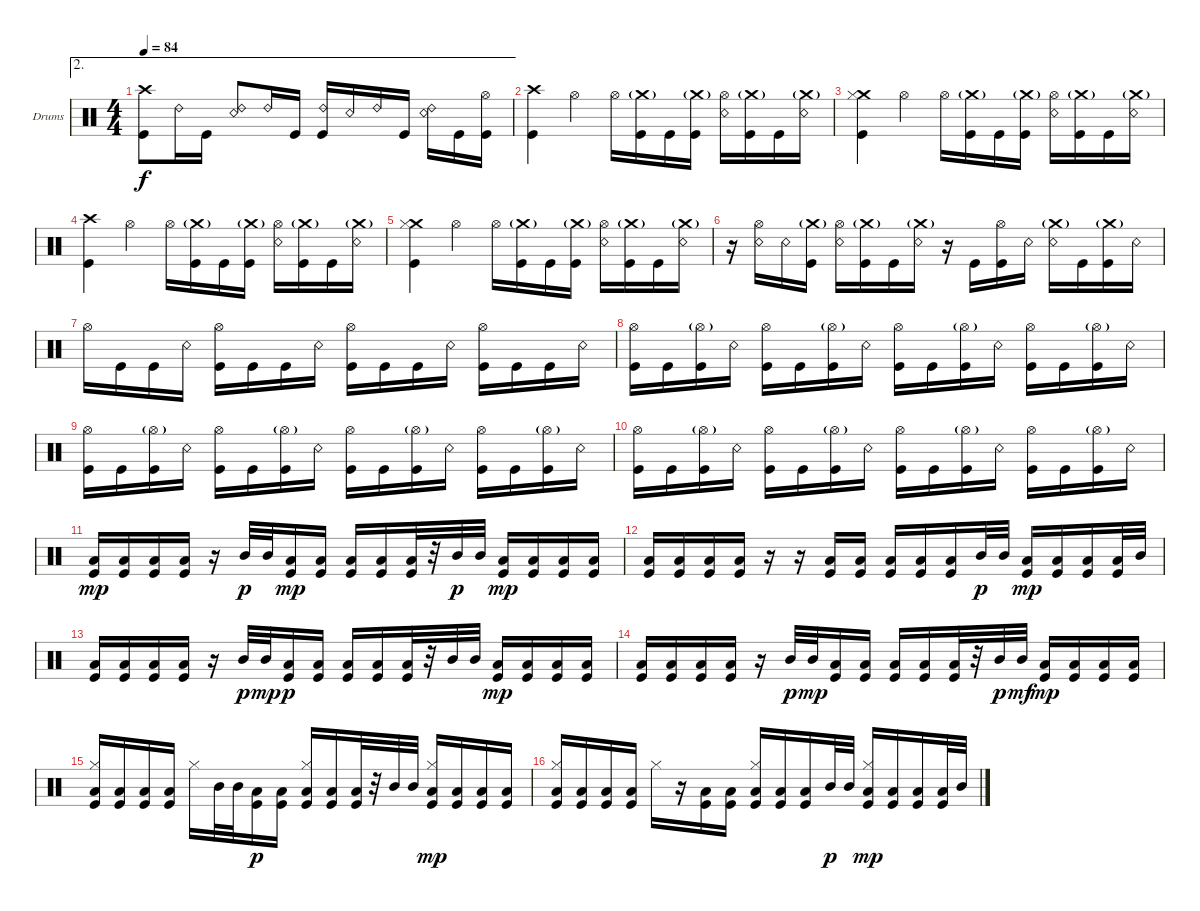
\defaultSystemsLayout 4
\bracketExtendMode groupsimilarinstruments
\firstSystemTrackNameOrientation horizontal
\otherSystemsTrackNameOrientation horizontal
\track ("Drumkit" "Drums") {instrument percussion}
\staff {score}
\articulation defaults
\ae 2
\ts (4 4)
\tempo 84
\clef neutral
\ks c
("Kick (hit)" "Crash high (hit)").8{dy f} "Ride (bell) 2".16 "Kick (hit)".16 ("Snare (rim shot)" "Ride (bell) 2").8 "Ride (bell) 2".16 "Kick (hit)".16 ("Kick (hit)" "Ride (bell) 2").16 "Snare (rim shot)".16 "Ride (bell) 2".16 "Kick (hit)".16 ("Snare (rim shot)" "Ride (bell) 2").16 "Kick (hit)".16 ("Kick (hit)" "Hi-Hat (open)").16 |
\scale
0.322034 ("Kick (hit)" "Crash high (hit)").4 "Hi-Hat (open)".4 "Hi-Hat (open)".16 ("Kick (hit)" "Crash medium (hit)"{g}).16 "Kick (hit)".16 ("Kick (hit)" "Crash medium (hit)"{g}).16 ("Snare (rim shot)" "Hi-Hat (open)").16 ("Kick (hit)" "Crash medium (hit)"{g}).16 "Kick (hit)".16 ("Snare (rim shot)" "Crash medium (hit)"{g}).16 |
\scale
0.333333 ("Kick (hit)" "Crash medium (hit)" "Hi-Hat (closed)").4 "Hi-Hat (open)".4 "Hi-Hat (open)".16 ("Kick (hit)" "Crash medium (hit)"{g}).16 "Kick (hit)".16 ("Kick (hit)" "Crash medium (hit)"{g}).16 ("Snare (rim shot)" "Hi-Hat (open)").16 ("Kick (hit)" "Crash medium (hit)"{g}).16 "Kick (hit)".16 ("Snare (rim shot)" "Crash medium (hit)"{g}).16 |
\scale
0.333333 ("Kick (hit)" "Crash high (hit)").4 "Hi-Hat (open)".4 "Hi-Hat (open)".16 ("Kick (hit)" "Crash medium (hit)"{g}).16 "Kick (hit)".16 ("Kick (hit)" "Crash medium (hit)"{g}).16 ("Snare (rim shot)" "Hi-Hat (open)").16 ("Kick (hit)" "Crash medium (hit)"{g}).16 "Kick (hit)".16 ("Snare (rim shot)" "Crash medium (hit)"{g}).16 |
\scale
0.333333 ("Kick (hit)" "Crash medium (hit)" "Hi-Hat (closed)").4 "Hi-Hat (open)".4 "Hi-Hat (open)".16 ("Kick (hit)" "Crash medium (hit)"{g}).16 "Kick (hit)".16 ("Kick (hit)" "Crash medium (hit)"{g}).16 ("Snare (rim shot)" "Hi-Hat (open)").16 ("Kick (hit)" "Crash medium (hit)"{g}).16 "Kick (hit)".16 ("Snare (rim shot)" "Crash medium (hit)"{g}).16 |
\scale
0.333333 r.16 ("Snare (rim shot)" "Hi-Hat (open)").16 "Snare (rim shot)".16 ("Kick (hit)" "Crash medium (hit)"{g}).16 ("Snare (rim shot)" "Hi-Hat (open)").16 ("Kick (hit)" "Crash medium (hit)"{g}).16 "Kick (hit)".16 ("Snare (rim shot)" "Crash medium (hit)"{g}).16 r.16 "Kick (hit)".16 ("Kick (hit)" "Hi-Hat (open)").16 "Snare (rim shot)".16 ("Snare (rim shot)" "Crash medium (hit)"{g}).16 "Kick (hit)".16 ("Kick (hit)" "Crash medium (hit)"{g}).16 "Snare (rim shot)".16 |
\scale
0.333333 "Hi-Hat (open)".16 "Kick (hit)".16 "Kick (hit)".16 "Snare (rim shot)".16 ("Kick (hit)" "Hi-Hat (open)").16 "Kick (hit)".16 "Kick (hit)".16 "Snare (rim shot)".16 ("Kick (hit)" "Hi-Hat (open)").16 "Kick (hit)".16 "Kick (hit)".16 "Snare (rim shot)".16 ("Kick (hit)" "Hi-Hat (open)").16 "Kick (hit)".16 "Kick (hit)".16 "Snare (rim shot)".16 |
\scale
0.333333 ("Hi-Hat (open)" "Kick (hit)").16 "Kick (hit)".16 ("Kick (hit)" "Hi-Hat (open)"{g}).16 "Snare (rim shot)".16 ("Kick (hit)" "Hi-Hat (open)").16 "Kick (hit)".16 ("Kick (hit)" "Hi-Hat (open)"{g}).16 "Snare (rim shot)".16 ("Kick (hit)" "Hi-Hat (open)").16 "Kick (hit)".16 ("Kick (hit)" "Hi-Hat (open)"{g}).16 "Snare (rim shot)".16 ("Kick (hit)" "Hi-Hat (open)").16 "Kick (hit)".16 ("Kick (hit)" "Hi-Hat (open)"{g}).16 "Snare (rim shot)".16 |
\scale
0.333333 ("Hi-Hat (open)" "Kick (hit)").16 "Kick (hit)".16 ("Kick (hit)" "Hi-Hat (open)"{g}).16 "Snare (rim shot)".16 ("Kick (hit)" "Hi-Hat (open)").16 "Kick (hit)".16 ("Kick (hit)" "Hi-Hat (open)"{g}).16 "Snare (rim shot)".16 ("Kick (hit)" "Hi-Hat (open)").16 "Kick (hit)".16 ("Kick (hit)" "Hi-Hat (open)"{g}).16 "Snare (rim shot)".16 ("Kick (hit)" "Hi-Hat (open)").16 "Kick (hit)".16 ("Kick (hit)" "Hi-Hat (open)"{g}).16 "Snare (rim shot)".16 |
\scale
0.333333 ("Hi-Hat (open)" "Kick (hit)").16 "Kick (hit)".16 ("Kick (hit)" "Hi-Hat (open)"{g}).16 "Snare (rim shot)".16 ("Kick (hit)" "Hi-Hat (open)").16 "Kick (hit)".16 ("Kick (hit)" "Hi-Hat (open)"{g}).16 "Snare (rim shot)".16 ("Kick (hit)" "Hi-Hat (open)").16 "Kick (hit)".16 ("Kick (hit)" "Hi-Hat (open)"{g}).16 "Snare (rim shot)".16 ("Kick (hit)" "Hi-Hat (open)").16 "Kick (hit)".16 ("Kick (hit)" "Hi-Hat (open)"{g}).16 "Snare (rim shot)".16 |
\scale
0.333333 ("Low Tom (hit)" "Kick (hit)").16{dy mp} ("Low Tom (hit)" "Kick (hit)").16 ("Low Tom (hit)" "Kick (hit)").16 ("Low Tom (hit)" "Kick (hit)").16 r.16 "Mid Tom (hit)".32{dy p} "Mid Tom (hit)".32 ("Low Tom (hit)" "Kick (hit)").16{dy mp} ("Low Tom (hit)" "Kick (hit)").16 ("Low Tom (hit)" "Kick (hit)").16 ("Low Tom (hit)" "Kick (hit)").16 ("Low Tom (hit)" "Kick (hit)").32 r.32 "Mid Tom (hit)".32{dy p} "Mid Tom (hit)".32 ("Low Tom (hit)" "Kick (hit)").16{dy mp} ("Low Tom (hit)" "Kick (hit)").16 ("Low Tom (hit)" "Kick (hit)").16 ("Low Tom (hit)" "Kick (hit)").16 |
\scale
0.333333 ("Low Tom (hit)" "Kick (hit)").16 ("Low Tom (hit)" "Kick (hit)").16 ("Low Tom (hit)" "Kick (hit)").16 ("Low Tom (hit)" "Kick (hit)").16 r.16 r.16 ("Low Tom (hit)" "Kick (hit)").16 ("Low Tom (hit)" "Kick (hit)").16 ("Low Tom (hit)" "Kick (hit)").16 ("Low Tom (hit)" "Kick (hit)").16 ("Low Tom (hit)" "Kick (hit)").16 "Mid Tom (hit)".32{dy p} "Mid Tom (hit)".32 ("Low Tom (hit)" "Kick (hit)").16{dy mp} ("Low Tom (hit)" "Kick (hit)").16 ("Low Tom (hit)" "Kick (hit)").16 ("Low Tom (hit)" "Kick (hit)").32 "Mid Tom (hit)".32 |
\scale
0.333333 ("Low Tom (hit)" "Kick (hit)").16 ("Low Tom (hit)" "Kick (hit)").16 ("Low Tom (hit)" "Kick (hit)").16 ("Low Tom (hit)" "Kick (hit)").16 r.16 "Mid Tom (hit)".32{dy p} "Mid Tom (hit)".32{dy mp} ("Low Tom (hit)" "Kick (hit)").16{dy p} ("Low Tom (hit)" "Kick (hit)").16 ("Low Tom (hit)" "Kick (hit)").16 ("Low Tom (hit)" "Kick (hit)").16 ("Low Tom (hit)" "Kick (hit)").32 r.32 "Mid Tom (hit)".32 "Mid Tom (hit)".32 ("Low Tom (hit)" "Kick (hit)").16{dy mp} ("Low Tom (hit)" "Kick (hit)").16 ("Low Tom (hit)" "Kick (hit)").16 ("Low Tom (hit)" "Kick (hit)").16 |
\scale
0.333333 ("Low Tom (hit)" "Kick (hit)").16 ("Low Tom (hit)" "Kick (hit)").16 ("Low Tom (hit)" "Kick (hit)").16 ("Low Tom (hit)" "Kick (hit)").16 r.16 "Mid Tom (hit)".32{dy p} "Mid Tom (hit)".32{dy mp} ("Low Tom (hit)" "Kick (hit)").16 ("Low Tom (hit)" "Kick (hit)").16 ("Low Tom (hit)" "Kick (hit)").16 ("Low Tom (hit)" "Kick (hit)").16 ("Low Tom (hit)" "Kick (hit)").32 r.32 "Mid Tom (hit)".32{dy p} "Mid Tom (hit)".32{dy mf} ("Low Tom (hit)" "Kick (hit)").16{dy mp} ("Low Tom (hit)" "Kick (hit)").16 ("Low Tom (hit)" "Kick (hit)").16 ("Low Tom (hit)" "Kick (hit)").16 |
\scale
0.333333 ("Low Tom (hit)" "Kick (hit)" "Hi-Hat (closed)").16 ("Low Tom (hit)" "Kick (hit)").16 ("Low Tom (hit)" "Kick (hit)").16 ("Low Tom (hit)" "Kick (hit)").16 "Hi-Hat (closed)".16 "Mid Tom (hit)".32 "Mid Tom (hit)".32 ("Low Tom (hit)" "Kick (hit)").16{dy p} ("Low Tom (hit)" "Kick (hit)").16 ("Low Tom (hit)" "Kick (hit)" "Hi-Hat (closed)").16 ("Low Tom (hit)" "Kick (hit)").16 ("Low Tom (hit)" "Kick (hit)").32 r.32 "Mid Tom (hit)".32 "Mid Tom (hit)".32 ("Low Tom (hit)" "Kick (hit)" "Hi-Hat (closed)").16{dy mp} ("Low Tom (hit)" "Kick (hit)").16 ("Low Tom (hit)" "Kick (hit)").16 ("Low Tom (hit)" "Kick (hit)").16 |
\scale
0.333333 ("Low Tom (hit)" "Kick (hit)" "Hi-Hat (closed)").16 ("Low Tom (hit)" "Kick (hit)").16 ("Low Tom (hit)" "Kick (hit)").16 ("Low Tom (hit)" "Kick (hit)").16 "Hi-Hat (closed)".16 r.16 ("Low Tom (hit)" "Kick (hit)").16 ("Low Tom (hit)" "Kick (hit)").16 ("Low Tom (hit)" "Kick (hit)" "Hi-Hat (closed)").16 ("Low Tom (hit)" "Kick (hit)").16 ("Low Tom (hit)" "Kick (hit)").16 "Mid Tom (hit)".32{dy p} "Mid Tom (hit)".32 ("Low Tom (hit)" "Kick (hit)" "Hi-Hat (closed)").16{dy mp} ("Low Tom (hit)" "Kick (hit)").16 ("Low Tom (hit)" "Kick (hit)").16 ("Low Tom (hit)" "Kick (hit)").32 "Mid Tom (hit)".32
